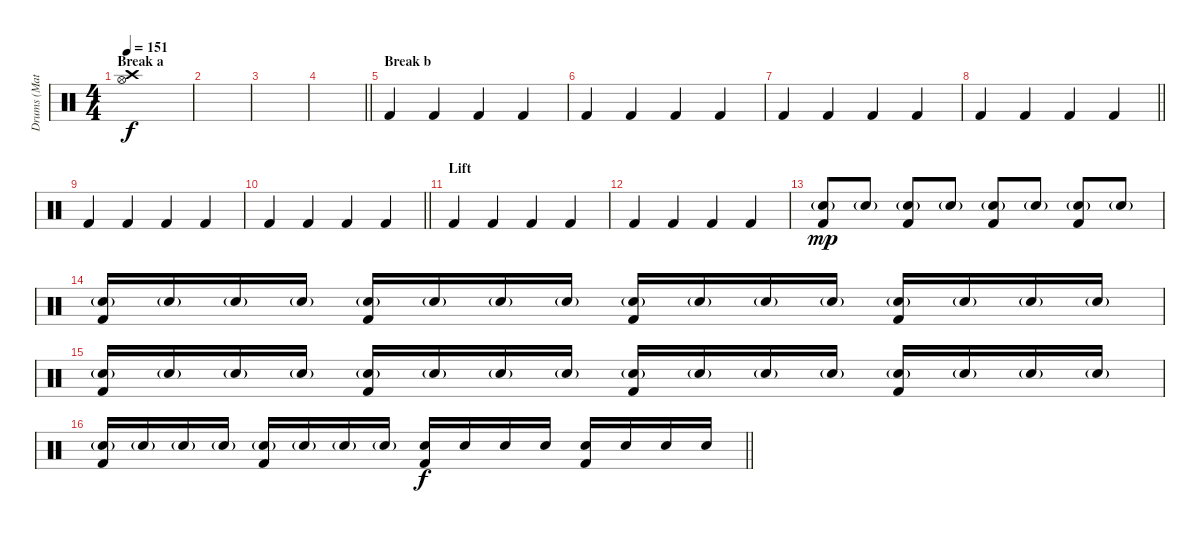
\track ("Drums (Matt Tong)" "Drums (Mat") {instrument percussion}
\staff {score}
\articulation defaults
\ts (4 4)
\section ("" "Break a")
\tempo 151
\clef neutral
\ks c
("Hi-Hat (open)" "Crash high (hit)").1{dy f} |
|
|
\barLineRight lightlight
|
\section ("" "Break b")
"Kick (hit) 2".4{volume 5} "Kick (hit) 2".4 "Kick (hit) 2".4 "Kick (hit) 2".4 |
"Kick (hit) 2".4 "Kick (hit) 2".4 "Kick (hit) 2".4 "Kick (hit) 2".4 |
"Kick (hit) 2".4 "Kick (hit) 2".4 "Kick (hit) 2".4 "Kick (hit) 2".4 |
\barLineRight lightlight "Kick (hit) 2".4 "Kick (hit) 2".4 "Kick (hit) 2".4 "Kick (hit) 2".4
|
"Kick (hit) 2".4{volume 9} "Kick (hit) 2".4 "Kick (hit) 2".4 "Kick (hit) 2".4 |
\barLineRight lightlight "Kick (hit) 2".4 "Kick (hit) 2".4 "Kick (hit) 2".4 "Kick (hit) 2".4
|
\section ("" "Lift")
"Kick (hit) 2".4 "Kick (hit) 2".4 "Kick (hit) 2".4 "Kick (hit) 2".4 |
"Kick (hit) 2".4 "Kick (hit) 2".4 "Kick (hit) 2".4 "Kick (hit) 2".4 |
("Electric Snare (hit)"{g} "Kick (hit) 2").8{dy mp volume 11} "Electric Snare (hit)"{g}.8 ("Electric Snare (hit)"{g} "Kick (hit) 2").8 "Electric Snare (hit)"{g}.8 ("Electric Snare (hit)"{g} "Kick (hit) 2").8 "Electric Snare (hit)"{g}.8 ("Electric Snare (hit)"{g} "Kick (hit) 2").8 "Electric Snare (hit)"{g}.8 |
("Electric Snare (hit)"{g} "Kick (hit) 2").16 "Electric Snare (hit)"{g}.16 "Electric Snare (hit)"{g}.16 "Electric Snare (hit)"{g}.16 ("Electric Snare (hit)"{g} "Kick (hit) 2").16 "Electric Snare (hit)"{g}.16 "Electric Snare (hit)"{g}.16 "Electric Snare (hit)"{g}.16 ("Electric Snare (hit)"{g} "Kick (hit) 2").16 "Electric Snare (hit)"{g}.16 "Electric Snare (hit)"{g}.16 "Electric Snare (hit)"{g}.16 ("Electric Snare (hit)"{g} "Kick (hit) 2").16 "Electric Snare (hit)"{g}.16 "Electric Snare (hit)"{g}.16 "Electric Snare (hit)"{g}.16 |
("Electric Snare (hit)"{g} "Kick (hit) 2").16 "Electric Snare (hit)"{g}.16 "Electric Snare (hit)"{g}.16 "Electric Snare (hit)"{g}.16 ("Electric Snare (hit)"{g} "Kick (hit) 2").16 "Electric Snare (hit)"{g}.16 "Electric Snare (hit)"{g}.16 "Electric Snare (hit)"{g}.16 ("Electric Snare (hit)"{g} "Kick (hit) 2").16 "Electric Snare (hit)"{g}.16 "Electric Snare (hit)"{g}.16 "Electric Snare (hit)"{g}.16 ("Electric Snare (hit)"{g} "Kick (hit) 2").16 "Electric Snare (hit)"{g}.16 "Electric Snare (hit)"{g}.16 "Electric Snare (hit)"{g}.16 |
\barLineRight lightlight
("Electric Snare (hit)"{g} "Kick (hit) 2").16 "Electric Snare (hit)"{g}.16 "Electric Snare (hit)"{g}.16 "Electric Snare (hit)"{g}.16 ("Electric Snare (hit)"{g} "Kick (hit) 2").16 "Electric Snare (hit)"{g}.16 "Electric Snare (hit)"{g}.16 "Electric Snare (hit)"{g}.16 ("Electric Snare (hit)" "Kick (hit) 2").16{dy f} "Electric Snare (hit)".16 "Electric Snare (hit)".16 "Electric Snare (hit)".16 ("Electric Snare (hit)" "Kick (hit) 2").16 "Electric Snare (hit)".16 "Electric Snare (hit)".16 "Electric Snare (hit)".16
